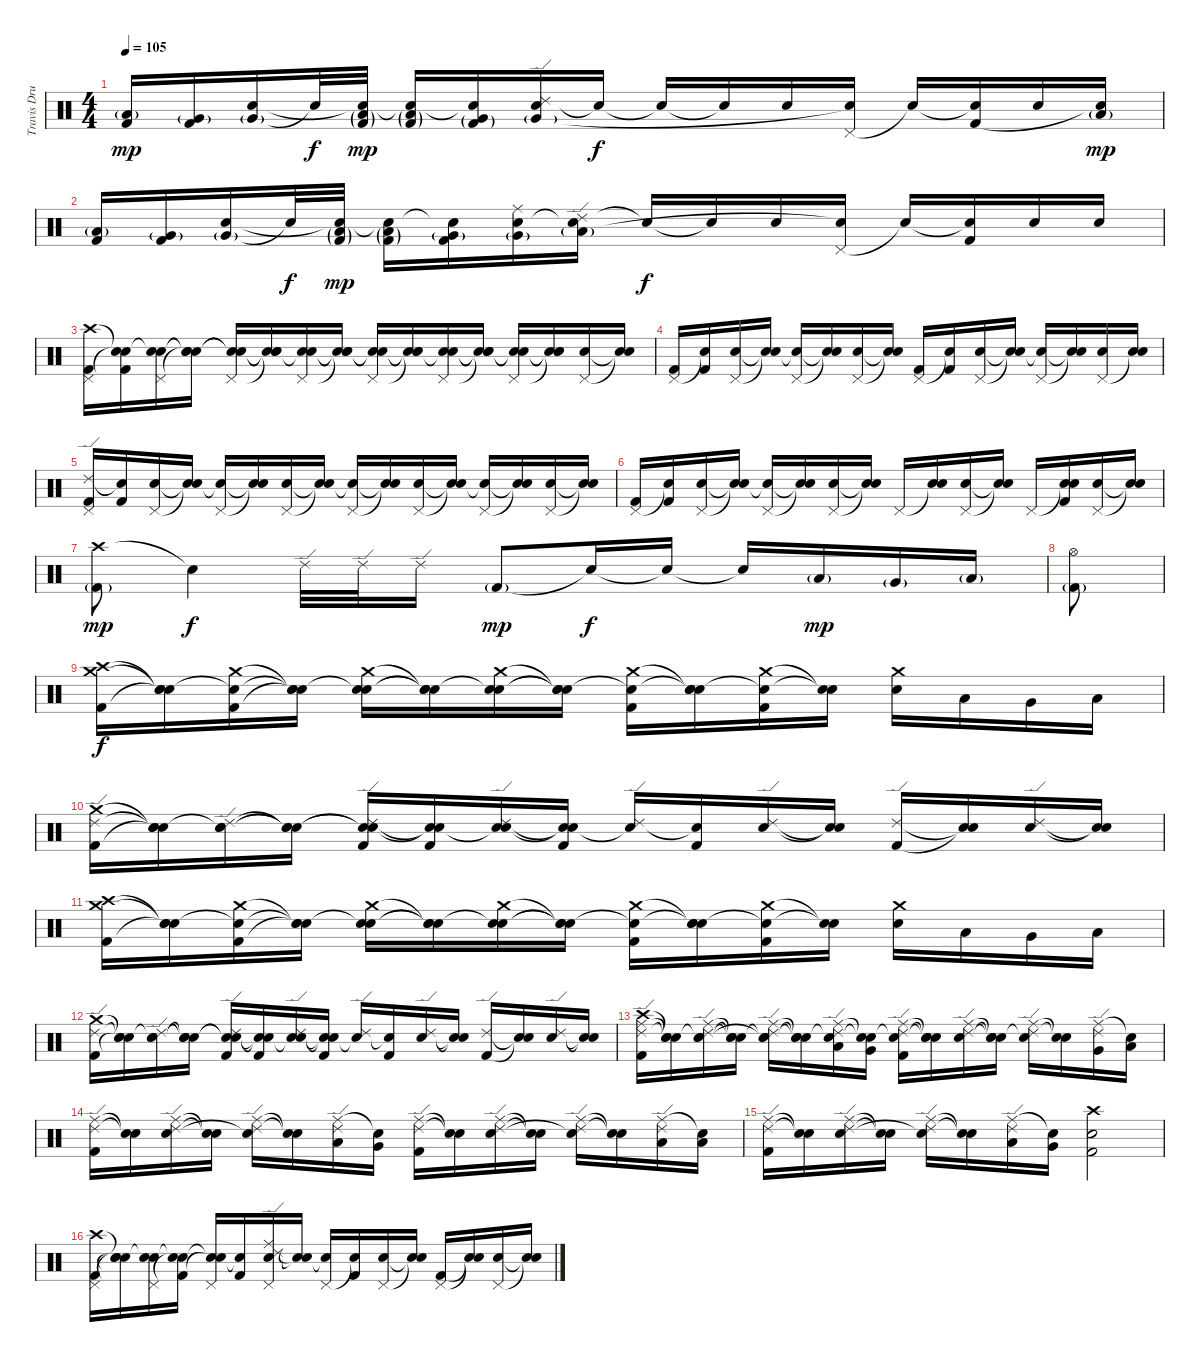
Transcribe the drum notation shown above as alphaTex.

\track ("Travis Drums" "Travis Dru") {instrument percussion}
\staff {score}
\articulation defaults
\ts (4 4)
\tempo 105
\clef neutral
\ks c
("Low Tom (hit)"{g} "Kick (hit) 2").16{dy mp} ("Very Low Tom (hit)"{g} "Kick (hit) 2").16 ("Very Low Tom (hit)"{g} "Electric Snare (hit)").16 "Snare (hit)"{t}.32{dy f} ("Low Tom (hit)"{g} "Snare (hit)"{t} "Kick (hit) 2"{g}).32{dy mp} ("Low Tom (hit)"{g} "Snare (hit)"{t} "Kick (hit) 2"{g}).16 ("Very Low Tom (hit)"{g} "Snare (hit)"{t} "Kick (hit) 2"{g}).16 ("Ride (edge) 2" "Very Low Tom (hit)"{g} "Electric Snare (hit)").16 "Snare (hit)"{t}.16{dy f} "Snare (hit)"{t}.16 "Snare (hit)"{t}.16 "Electric Snare (hit)".16 ("Pedal Hi-Hat (hit)" "Snare (hit)"{t}).16 "Snare (hit)"{t}.16 ("Snare (hit)"{t} "Kick (hit) 2").16 "Electric Snare (hit)".16 ("Low Tom (hit)"{g} "Snare (hit)"{t}).16{dy mp} |
("Low Tom (hit)"{g} "Kick (hit) 2").16 ("Very Low Tom (hit)"{g} "Kick (hit) 2").16 ("Very Low Tom (hit)"{g} "Electric Snare (hit)").16 "Snare (hit)"{t}.32{dy f} ("Low Tom (hit)"{g} "Snare (hit)"{t} "Kick (hit) 2"{g}).32{dy mp} ("Low Tom (hit)"{g} "Snare (hit)"{t} "Kick (hit) 2"{g}).16 ("Very Low Tom (hit)"{g} "Snare (hit)"{t} "Kick (hit) 2").16 ("Ride (middle)" "Very Low Tom (hit)"{g} "Electric Snare (hit)").16 ("Ride (edge) 2" "Low Floor Tom (hit)"{g} "Snare (hit)"{t}).16 "Electric Snare (hit)"{t}.16{dy f} "Snare (hit)"{t}.16 "Electric Snare (hit)".16 ("Pedal Hi-Hat (hit)" "Electric Snare (hit)"{t}).16 "Snare (hit)"{t}.16 ("Snare (hit)"{t} "Kick (hit) 2").16 "Electric Snare (hit)".16 "Electric Snare (hit)".16 |
("Crash high (hit)" "Pedal Hi-Hat (hit)" "Kick (hit) 2").16 ("Snare (hit)"{t} "Snare (hit)"{t} "Kick (hit) 2").16 ("Snare (hit)"{t} "Pedal Hi-Hat (hit)" "Electric Snare (hit)").16 ("Snare (hit)"{t} "Snare (hit)"{t} "Snare (hit)"{t}).16 ("Snare (hit)"{t} "Pedal Hi-Hat (hit)" "Snare (hit)"{t}).16 ("Snare (hit)"{t} "Snare (hit)"{t} "Snare (hit)"{t}).16 ("Snare (hit)"{t} "Pedal Hi-Hat (hit)" "Electric Snare (hit)").16 ("Snare (hit)"{t} "Snare (hit)"{t} "Snare (hit)"{t}).16 ("Snare (hit)"{t} "Pedal Hi-Hat (hit)" "Snare (hit)"{t}).16 ("Snare (hit)"{t} "Snare (hit)"{t} "Snare (hit)"{t}).16 ("Snare (hit)"{t} "Pedal Hi-Hat (hit)" "Electric Snare (hit)").16 ("Snare (hit)"{t} "Snare (hit)"{t} "Snare (hit)"{t}).16 ("Snare (hit)"{t} "Pedal Hi-Hat (hit)" "Snare (hit)"{t}).16 ("Snare (hit)"{t} "Snare (hit)"{t} "Snare (hit)"{t}).16 ("Pedal Hi-Hat (hit)" "Electric Snare (hit)").16 ("Snare (hit)"{t} "Snare (hit)"{t}).16 |
("Pedal Hi-Hat (hit)" "Kick (hit) 2").16 ("Snare (hit)"{t} "Kick (hit) 2").16 ("Pedal Hi-Hat (hit)" "Electric Snare (hit)").16 ("Snare (hit)"{t} "Snare (hit)"{t}).16 ("Pedal Hi-Hat (hit)" "Snare (hit)"{t}).16 ("Snare (hit)"{t} "Snare (hit)"{t}).16 ("Pedal Hi-Hat (hit)" "Electric Snare (hit)").16 ("Snare (hit)"{t} "Snare (hit)"{t}).16 ("Pedal Hi-Hat (hit)" "Kick (hit) 2").16 ("Snare (hit)"{t} "Kick (hit) 2").16 ("Pedal Hi-Hat (hit)" "Electric Snare (hit)").16 ("Snare (hit)"{t} "Snare (hit)"{t}).16 ("Pedal Hi-Hat (hit)" "Snare (hit)"{t}).16 ("Snare (hit)"{t} "Snare (hit)"{t}).16 ("Pedal Hi-Hat (hit)" "Electric Snare (hit)").16 ("Snare (hit)"{t} "Electric Snare (hit)").16 |
("Ride (edge) 2" "Pedal Hi-Hat (hit)" "Kick (hit) 2").16 ("Snare (hit)"{t} "Kick (hit) 2").16 ("Pedal Hi-Hat (hit)" "Electric Snare (hit)").16 ("Snare (hit)"{t} "Snare (hit)"{t}).16 ("Pedal Hi-Hat (hit)" "Snare (hit)"{t}).16 ("Snare (hit)"{t} "Snare (hit)"{t}).16 ("Pedal Hi-Hat (hit)" "Electric Snare (hit)").16 ("Snare (hit)"{t} "Snare (hit)"{t}).16 ("Pedal Hi-Hat (hit)" "Snare (hit)"{t}).16 ("Snare (hit)"{t} "Snare (hit)"{t}).16 ("Pedal Hi-Hat (hit)" "Electric Snare (hit)").16 ("Snare (hit)"{t} "Snare (hit)"{t}).16 ("Pedal Hi-Hat (hit)" "Snare (hit)"{t}).16 ("Snare (hit)"{t} "Snare (hit)"{t}).16 ("Pedal Hi-Hat (hit)" "Electric Snare (hit)").16 ("Snare (hit)"{t} "Snare (hit)"{t}).16 |
("Pedal Hi-Hat (hit)" "Kick (hit) 2").16 ("Snare (hit)"{t} "Kick (hit) 2").16 ("Pedal Hi-Hat (hit)" "Electric Snare (hit)").16 ("Snare (hit)"{t} "Snare (hit)"{t}).16 ("Pedal Hi-Hat (hit)" "Snare (hit)"{t}).16 ("Snare (hit)"{t} "Snare (hit)"{t}).16 ("Pedal Hi-Hat (hit)" "Electric Snare (hit)").16 ("Snare (hit)"{t} "Electric Snare (hit)"{t}).16 "Pedal Hi-Hat (hit)".16 ("Snare (hit)"{t} "Electric Snare (hit)").16 ("Pedal Hi-Hat (hit)" "Electric Snare (hit)").16 ("Snare (hit)"{t} "Electric Snare (hit)"{t}).16 "Pedal Hi-Hat (hit)".16 ("Snare (hit)"{t} "Electric Snare (hit)" "Kick (hit) 2").16 ("Pedal Hi-Hat (hit)" "Electric Snare (hit)").16 ("Snare (hit)"{t} "Electric Snare (hit)"{t}).16 |
("Crash high (hit)" "Kick (hit) 2"{g}).8{dy mp} "Snare (hit)"{t}.4{dy f} "Ride (edge) 2".32 "Ride (edge) 2".32 "Ride (edge) 2".16 "Kick (hit) 2"{g}.8{dy mp} "Snare (hit)"{t}.16{dy f} "Snare (hit)"{t}.16 "Snare (hit)"{t}.16 "Low Tom (hit)"{g}.16{dy mp} "Very Low Tom (hit)"{g}.16 "Low Floor Tom (hit)"{g}.16 |
("Hi-Hat (open)" "Kick (hit) 2"{g}).8 |
("Crash high (hit)" "Crash medium (hit)" "Kick (hit) 2").16{dy f volume 10} ("Snare (hit)"{t} "Snare (hit)"{t} "Snare (hit)"{t}).16 ("Snare (hit)"{t} "Crash medium (hit)" "Kick (hit) 2").16 ("Snare (hit)"{t} "Snare (hit)"{t} "Snare (hit)"{t}).16 ("Snare (hit)"{t} "Crash medium (hit)" "Electric Snare (hit)").16 ("Snare (hit)"{t} "Snare (hit)"{t} "Electric Snare (hit)"{t}).16 ("Snare (hit)"{t} "Crash medium (hit)" "Electric Snare (hit)").16 ("Snare (hit)"{t} "Snare (hit)"{t} "Snare (hit)"{t}).16 ("Snare (hit)"{t} "Crash medium (hit)" "Kick (hit) 2").16 ("Snare (hit)"{t} "Snare (hit)"{t} "Electric Snare (hit)").16 ("Snare (hit)"{t} "Crash medium (hit)" "Kick (hit) 2").16 ("Snare (hit)"{t} "Snare (hit)"{t}).16 ("Crash medium (hit)" "Electric Snare (hit)").16 "Low Tom (hit)".16 "Very Low Tom (hit)".16 "Low Floor Tom (hit)".16 |
("Crash medium (hit)" "Ride (edge) 2" "Kick (hit) 2").16 ("Snare (hit)"{t} "Snare (hit)"{t} "Snare (hit)"{t}).16 ("Snare (hit)"{t} "Ride (edge) 2" "Electric Snare (hit)").16 ("Snare (hit)"{t} "Snare (hit)"{t} "Snare (hit)"{t}).16 ("Snare (hit)"{t} "Ride (edge) 2" "Snare (hit)"{t} "Kick (hit) 2").16 ("Snare (hit)"{t} "Snare (hit)"{t} "Kick (hit) 2").16 ("Snare (hit)"{t} "Ride (edge) 2" "Electric Snare (hit)").16 ("Snare (hit)"{t} "Snare (hit)"{t} "Kick (hit) 2").16 ("Ride (edge) 2" "Snare (hit)"{t}).16 ("Snare (hit)"{t} "Kick (hit) 2").16 ("Ride (edge) 2" "Electric Snare (hit)").16 ("Snare (hit)"{t} "Snare (hit)"{t}).16 ("Ride (edge) 2" "Kick (hit) 2").16 ("Snare (hit)"{t} "Snare (hit)"{t}).16 ("Ride (edge) 2" "Electric Snare (hit)").16 ("Snare (hit)"{t} "Snare (hit)"{t}).16 |
("Crash high (hit)" "Crash medium (hit)" "Kick (hit) 2").16{volume 10} ("Snare (hit)"{t} "Snare (hit)"{t} "Snare (hit)"{t}).16 ("Snare (hit)"{t} "Crash medium (hit)" "Kick (hit) 2").16 ("Snare (hit)"{t} "Snare (hit)"{t} "Snare (hit)"{t}).16 ("Snare (hit)"{t} "Crash medium (hit)" "Electric Snare (hit)").16 ("Snare (hit)"{t} "Snare (hit)"{t} "Electric Snare (hit)"{t}).16 ("Snare (hit)"{t} "Crash medium (hit)" "Electric Snare (hit)").16 ("Snare (hit)"{t} "Snare (hit)"{t} "Snare (hit)"{t}).16 ("Snare (hit)"{t} "Crash medium (hit)" "Kick (hit) 2").16 ("Snare (hit)"{t} "Snare (hit)"{t} "Electric Snare (hit)").16 ("Snare (hit)"{t} "Crash medium (hit)" "Kick (hit) 2").16 ("Snare (hit)"{t} "Snare (hit)"{t}).16 ("Crash medium (hit)" "Electric Snare (hit)").16 "Low Tom (hit)".16 "Very Low Tom (hit)".16 "Low Floor Tom (hit)".16 |
("Crash medium (hit)" "Ride (edge) 2" "Kick (hit) 2").16 ("Snare (hit)"{t} "Snare (hit)"{t} "Snare (hit)"{t}).16 ("Snare (hit)"{t} "Ride (edge) 2" "Electric Snare (hit)").16 ("Snare (hit)"{t} "Snare (hit)"{t} "Snare (hit)"{t}).16 ("Snare (hit)"{t} "Ride (edge) 2" "Snare (hit)"{t} "Kick (hit) 2").16 ("Snare (hit)"{t} "Snare (hit)"{t} "Kick (hit) 2").16 ("Snare (hit)"{t} "Ride (edge) 2" "Electric Snare (hit)").16 ("Snare (hit)"{t} "Snare (hit)"{t} "Kick (hit) 2").16 ("Ride (edge) 2" "Snare (hit)"{t}).16 ("Snare (hit)"{t} "Kick (hit) 2").16 ("Ride (edge) 2" "Electric Snare (hit)").16 ("Snare (hit)"{t} "Snare (hit)"{t}).16 ("Ride (edge) 2" "Kick (hit) 2").16 ("Snare (hit)"{t} "Snare (hit)"{t}).16 ("Ride (edge) 2" "Electric Snare (hit)").16 ("Snare (hit)"{t} "Snare (hit)"{t}).16 |
("Crash high (hit)" "Ride (middle)" "Ride (edge) 2" "Kick (hit) 2").16 ("Snare (hit)"{t} "Snare (hit)"{t} "Snare (hit)"{t}).16 ("Snare (hit)"{t} "Ride (middle)" "Ride (edge) 2" "Electric Snare (hit)").16 ("Snare (hit)"{t} "Snare (hit)"{t} "Snare (hit)"{t}).16 ("Snare (hit)"{t} "Ride (middle)" "Ride (edge) 2" "Snare (hit)"{t}).16 ("Snare (hit)"{t} "Snare (hit)"{t} "Snare (hit)"{t}).16 ("Snare (hit)"{t} "Ride (middle)" "Ride (edge) 2" "Low Tom (hit)").16 ("Snare (hit)"{t} "Snare (hit)"{t} "Very Low Tom (hit)").16 ("Snare (hit)"{t} "Ride (middle)" "Ride (edge) 2" "Kick (hit) 2").16 ("Snare (hit)"{t} "Snare (hit)"{t} "Snare (hit)"{t}).16 ("Ride (middle)" "Ride (edge) 2" "Electric Snare (hit)").16 ("Snare (hit)"{t} "Snare (hit)"{t} "Snare (hit)"{t}).16 ("Ride (middle)" "Ride (edge) 2" "Snare (hit)"{t}).16 ("Snare (hit)"{t} "Snare (hit)"{t}).16 ("Ride (middle)" "Ride (edge) 2" "Very Low Tom (hit)").16 ("Snare (hit)"{t} "Low Floor Tom (hit)").16 |
("Ride (middle)" "Ride (edge) 2" "Kick (hit) 2").16 ("Snare (hit)"{t} "Snare (hit)"{t}).16 ("Ride (middle)" "Ride (edge) 2" "Electric Snare (hit)").16 ("Snare (hit)"{t} "Snare (hit)"{t}).16 ("Ride (middle)" "Ride (edge) 2" "Snare (hit)"{t}).16 ("Snare (hit)"{t} "Snare (hit)"{t}).16 ("Ride (middle)" "Ride (edge) 2" "Low Tom (hit)").16 ("Snare (hit)"{t} "Very Low Tom (hit)").16 ("Ride (middle)" "Ride (edge) 2" "Kick (hit) 2").16 ("Snare (hit)"{t} "Snare (hit)"{t}).16 ("Ride (middle)" "Ride (edge) 2" "Electric Snare (hit)").16 ("Snare (hit)"{t} "Snare (hit)"{t}).16 ("Ride (middle)" "Ride (edge) 2" "Snare (hit)"{t}).16 ("Snare (hit)"{t} "Snare (hit)"{t}).16 ("Ride (middle)" "Ride (edge) 2" "Low Tom (hit)").16 ("Snare (hit)"{t} "Low Floor Tom (hit)").16 |
("Ride (middle)" "Ride (edge) 2" "Kick (hit) 2").16 ("Snare (hit)"{t} "Snare (hit)"{t}).16 ("Ride (middle)" "Ride (edge) 2" "Electric Snare (hit)").16 ("Snare (hit)"{t} "Snare (hit)"{t}).16 ("Ride (middle)" "Ride (edge) 2" "Snare (hit)"{t}).16 ("Snare (hit)"{t} "Snare (hit)"{t}).16 ("Ride (middle)" "Ride (edge) 2" "Low Tom (hit)").16 ("Snare (hit)"{t} "Very Low Tom (hit)").16 ("Crash high (hit)" "Electric Snare (hit)" "Kick (hit) 2").2 |
("Crash high (hit)" "Pedal Hi-Hat (hit)" "Kick (hit) 2").16 ("Snare (hit)"{t} "Snare (hit)"{t} "Snare (hit)"{t}).16 ("Snare (hit)"{t} "Pedal Hi-Hat (hit)" "Electric Snare (hit)").16 ("Snare (hit)"{t} "Snare (hit)"{t} "Kick (hit) 2").16 ("Snare (hit)"{t} "Pedal Hi-Hat (hit)" "Snare (hit)"{t}).16 ("Snare (hit)"{t} "Kick (hit) 2").16 ("Ride (edge) 2" "Ride (middle)" "Pedal Hi-Hat (hit)" "Electric Snare (hit)").16 ("Snare (hit)"{t} "Snare (hit)"{t}).16 ("Pedal Hi-Hat (hit)" "Snare (hit)"{t}).16 ("Snare (hit)"{t} "Kick (hit) 2").16 ("Pedal Hi-Hat (hit)" "Electric Snare (hit)").16 ("Snare (hit)"{t} "Snare (hit)"{t}).16 ("Pedal Hi-Hat (hit)" "Kick (hit) 2").16 ("Snare (hit)"{t} "Snare (hit)"{t}).16 ("Pedal Hi-Hat (hit)" "Electric Snare (hit)").16 ("Snare (hit)"{t} "Snare (hit)"{t}).16
